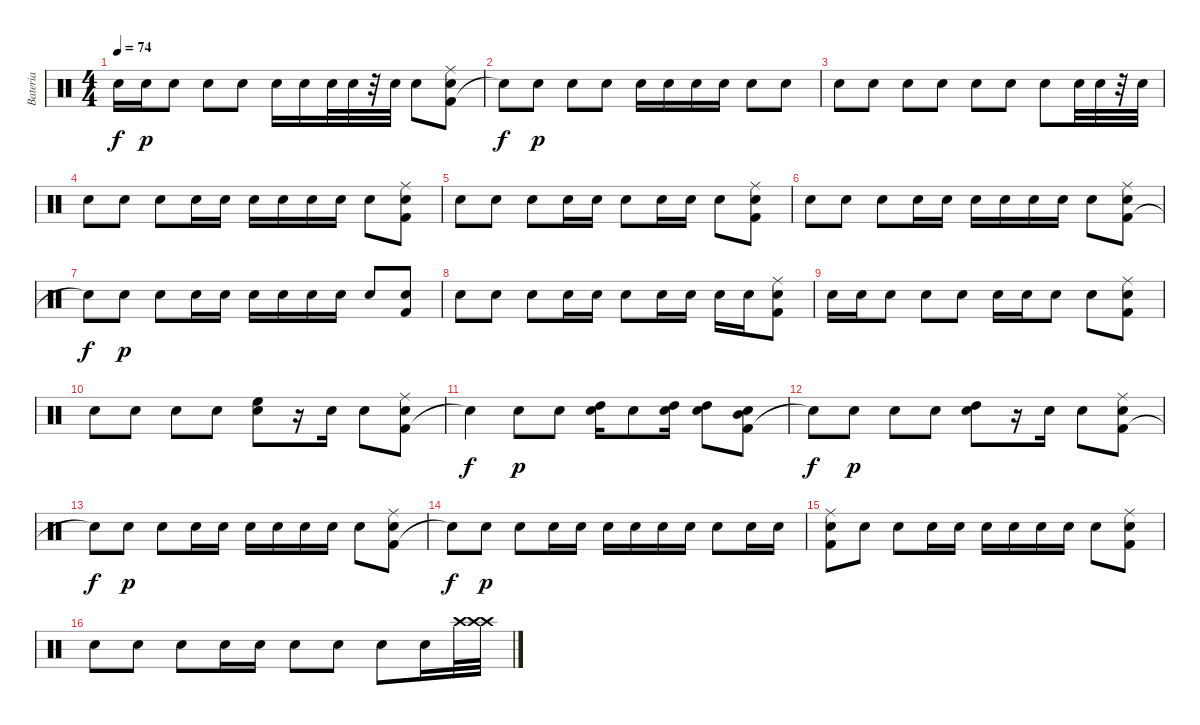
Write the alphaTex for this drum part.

\track ("Bateria" "Bateria") {instrument percussion}
\staff {score}
\articulation defaults
\ts (4 4)
\tempo 74
\clef neutral
\ks c "Snare (hit)"{t}.16{dy f} "Snare (hit) 2".16{dy p} "Snare (hit) 2".8 "Snare (hit) 2".8 "Snare (hit) 2".8 "Snare (hit) 2".16 "Snare (hit) 2".16 "Snare (hit) 2".32 "Snare (hit) 2".32
r.32 "Snare (hit) 2".32 "Snare (hit) 2".8 ("Kick (hit) 2" "Snare (hit) 2" "Ride (middle)").8 |
"Snare (hit)"{t}.8{dy f} "Snare (hit) 2".8{dy p} "Snare (hit) 2".8 "Snare (hit) 2".8 "Snare (hit) 2".16 "Snare (hit) 2".16 "Snare (hit) 2".16 "Snare (hit) 2".16 "Snare (hit) 2".8 "Snare (hit) 2".8 |
"Snare (hit) 2".8 "Snare (hit) 2".8 "Snare (hit) 2".8 "Snare (hit) 2".8 "Snare (hit) 2".8 "Snare (hit) 2".8 "Snare (hit) 2".8 "Snare (hit) 2".32 "Snare (hit) 2".32 r.32 "Snare (hit) 2".32 |
"Snare (hit) 2".8 "Snare (hit) 2".8 "Snare (hit) 2".8 "Snare (hit) 2".16 "Snare (hit) 2".16 "Snare (hit) 2".16 "Snare (hit) 2".16 "Snare (hit) 2".16 "Snare (hit) 2".16 "Snare (hit) 2".8 ("Kick (hit) 2" "Snare (hit) 2" "Ride (middle)").8 |
"Snare (hit) 2".8 "Snare (hit) 2".8 "Snare (hit) 2".8 "Snare (hit) 2".16 "Snare (hit) 2".16 "Snare (hit) 2".8 "Snare (hit) 2".16 "Snare (hit) 2".16 "Snare (hit) 2".8 ("Kick (hit) 2" "Snare (hit) 2" "Ride (middle)").8 |
"Snare (hit) 2".8 "Snare (hit) 2".8 "Snare (hit) 2".8 "Snare (hit) 2".16 "Snare (hit) 2".16 "Snare (hit) 2".16 "Snare (hit) 2".16 "Snare (hit) 2".16 "Snare (hit) 2".16 "Snare (hit) 2".8 ("Kick (hit) 2" "Snare (hit) 2" "Ride (middle)").8 |
"Snare (hit)"{t}.8{dy f} "Snare (hit) 2".8{dy p} "Snare (hit) 2".8 "Snare (hit) 2".16 "Snare (hit) 2".16 "Snare (hit) 2".16 "Snare (hit) 2".16 "Snare (hit) 2".16 "Snare (hit) 2".16 "Snare (hit) 2".8 ("Kick (hit) 2" "Snare (hit) 2").8 |
"Snare (hit) 2".8 "Snare (hit) 2".8 "Snare (hit) 2".8 "Snare (hit) 2".16 "Snare (hit) 2".16 "Snare (hit) 2".8 "Snare (hit) 2".16 "Snare (hit) 2".16 "Snare (hit) 2".16 "Snare (hit) 2".16 ("Kick (hit) 2" "Snare (hit) 2" "Ride (middle)").8 |
"Snare (hit) 2".16 "Snare (hit) 2".16 "Snare (hit) 2".8 "Snare (hit) 2".8 "Snare (hit) 2".8 "Snare (hit) 2".16 "Snare (hit) 2".16 "Snare (hit) 2".8 "Snare (hit) 2".8 ("Kick (hit) 2" "Snare (hit) 2" "Ride (middle)").8 |
"Snare (hit) 2".8 "Snare (hit) 2".8 "Snare (hit) 2".8 "Snare (hit) 2".8 ("Snare (hit) 2" "High Floor Tom (hit)").8 r.16 "Snare (hit) 2".16 "Snare (hit) 2".8 ("Kick (hit) 2" "Snare (hit) 2" "Ride (middle)").8 |
"Snare (hit)"{t}.4{dy f} "Snare (hit) 2".8{dy p} "Snare (hit) 2".8 ("Snare (hit) 2" "High Tom (hit)").16 "Snare (hit) 2".8 ("Snare (hit) 2" "High Tom (hit)").16 ("Snare (hit) 2" "High Tom (hit)").8 ("Kick (hit) 2" "Snare (hit) 2" "Mid Tom (hit)").8 |
"Snare (hit)"{t}.8{dy f} "Snare (hit) 2".8{dy p} "Snare (hit) 2".8 "Snare (hit) 2".8 ("Snare (hit) 2" "High Tom (hit)").8 r.16 "Snare (hit) 2".16 "Snare (hit) 2".8 ("Kick (hit) 2" "Snare (hit) 2" "Ride (middle)").8 |
"Snare (hit)"{t}.8{dy f} "Snare (hit) 2".8{dy p} "Snare (hit) 2".8 "Snare (hit) 2".16 "Snare (hit) 2".16 "Snare (hit) 2".16 "Snare (hit) 2".16 "Snare (hit) 2".16 "Snare (hit) 2".16 "Snare (hit) 2".8 ("Kick (hit) 2" "Snare (hit) 2" "Ride (middle)").8 |
"Snare (hit)"{t}.8{dy f} "Snare (hit) 2".8{dy p} "Snare (hit) 2".8 "Snare (hit) 2".16 "Snare (hit) 2".16 "Snare (hit) 2".16 "Snare (hit) 2".16 "Snare (hit) 2".16 "Snare (hit) 2".16 "Snare (hit) 2".8 "Snare (hit) 2".16 "Snare (hit) 2".16 |
("Kick (hit) 2" "Snare (hit) 2" "Ride (middle)").8 "Snare (hit) 2".8 "Snare (hit) 2".8 "Snare (hit) 2".16 "Snare (hit) 2".16 "Snare (hit) 2".16 "Snare (hit) 2".16 "Snare (hit) 2".16 "Snare (hit) 2".16 "Snare (hit) 2".8 ("Kick (hit) 2" "Snare (hit) 2" "Ride (middle)").8 |
"Snare (hit) 2".8 "Snare (hit) 2".8 "Snare (hit) 2".8 "Snare (hit) 2".16 "Snare (hit) 2".16 "Snare (hit) 2".8 "Snare (hit) 2".8 "Snare (hit) 2".8 "Snare (hit) 2".16 "Crash high (hit)".32 ("Crash high (hit)" "Crash high (hit)").32
